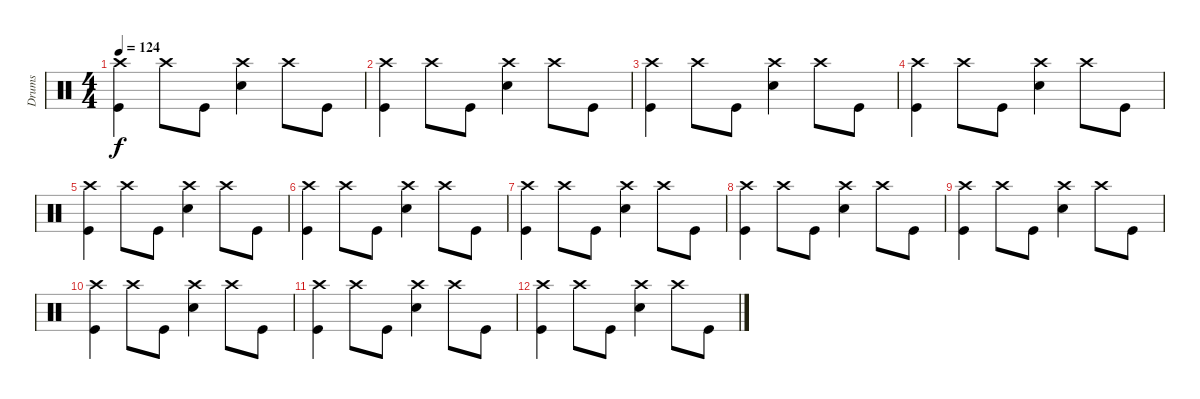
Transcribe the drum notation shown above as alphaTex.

\track ("Drums" "Drums") {instrument percussion}
\staff {score}
\articulation defaults
\ts (4 4)
\tempo 124
\clef neutral
\ks c
("Kick (hit)" "Crash high (hit)").4{dy f} "Crash high (hit)".8 "Kick (hit)".8 ("Snare (hit) 2" "Crash high (hit)").4 "Crash high (hit)".8 "Kick (hit)".8 |
("Kick (hit)" "Crash high (hit)").4 "Crash high (hit)".8 "Kick (hit)".8 ("Snare (hit) 2" "Crash high (hit)").4 "Crash high (hit)".8 "Kick (hit)".8 |
("Kick (hit)" "Crash high (hit)").4 "Crash high (hit)".8 "Kick (hit)".8 ("Snare (hit) 2" "Crash high (hit)").4 "Crash high (hit)".8 "Kick (hit)".8 |
("Kick (hit)" "Crash high (hit)").4 "Crash high (hit)".8 "Kick (hit)".8 ("Snare (hit) 2" "Crash high (hit)").4 "Crash high (hit)".8 "Kick (hit)".8 |
("Kick (hit)" "Crash high (hit)").4 "Crash high (hit)".8 "Kick (hit)".8 ("Snare (hit) 2" "Crash high (hit)").4 "Crash high (hit)".8 "Kick (hit)".8 |
("Kick (hit)" "Crash high (hit)").4 "Crash high (hit)".8 "Kick (hit)".8 ("Snare (hit) 2" "Crash high (hit)").4 "Crash high (hit)".8 "Kick (hit)".8 |
("Kick (hit)" "Crash high (hit)").4 "Crash high (hit)".8 "Kick (hit)".8 ("Snare (hit) 2" "Crash high (hit)").4 "Crash high (hit)".8 "Kick (hit)".8 |
("Kick (hit)" "Crash high (hit)").4 "Crash high (hit)".8 "Kick (hit)".8 ("Snare (hit) 2" "Crash high (hit)").4 "Crash high (hit)".8 "Kick (hit)".8 |
("Kick (hit)" "Crash high (hit)").4 "Crash high (hit)".8 "Kick (hit)".8 ("Snare (hit) 2" "Crash high (hit)").4 "Crash high (hit)".8 "Kick (hit)".8 |
("Kick (hit)" "Crash high (hit)").4 "Crash high (hit)".8 "Kick (hit)".8 ("Snare (hit) 2" "Crash high (hit)").4 "Crash high (hit)".8 "Kick (hit)".8 |
("Kick (hit)" "Crash high (hit)").4 "Crash high (hit)".8 "Kick (hit)".8 ("Snare (hit) 2" "Crash high (hit)").4 "Crash high (hit)".8 "Kick (hit)".8 |
("Kick (hit)" "Crash high (hit)").4 "Crash high (hit)".8 "Kick (hit)".8 ("Snare (hit) 2" "Crash high (hit)").4 "Crash high (hit)".8 "Kick (hit)".8
